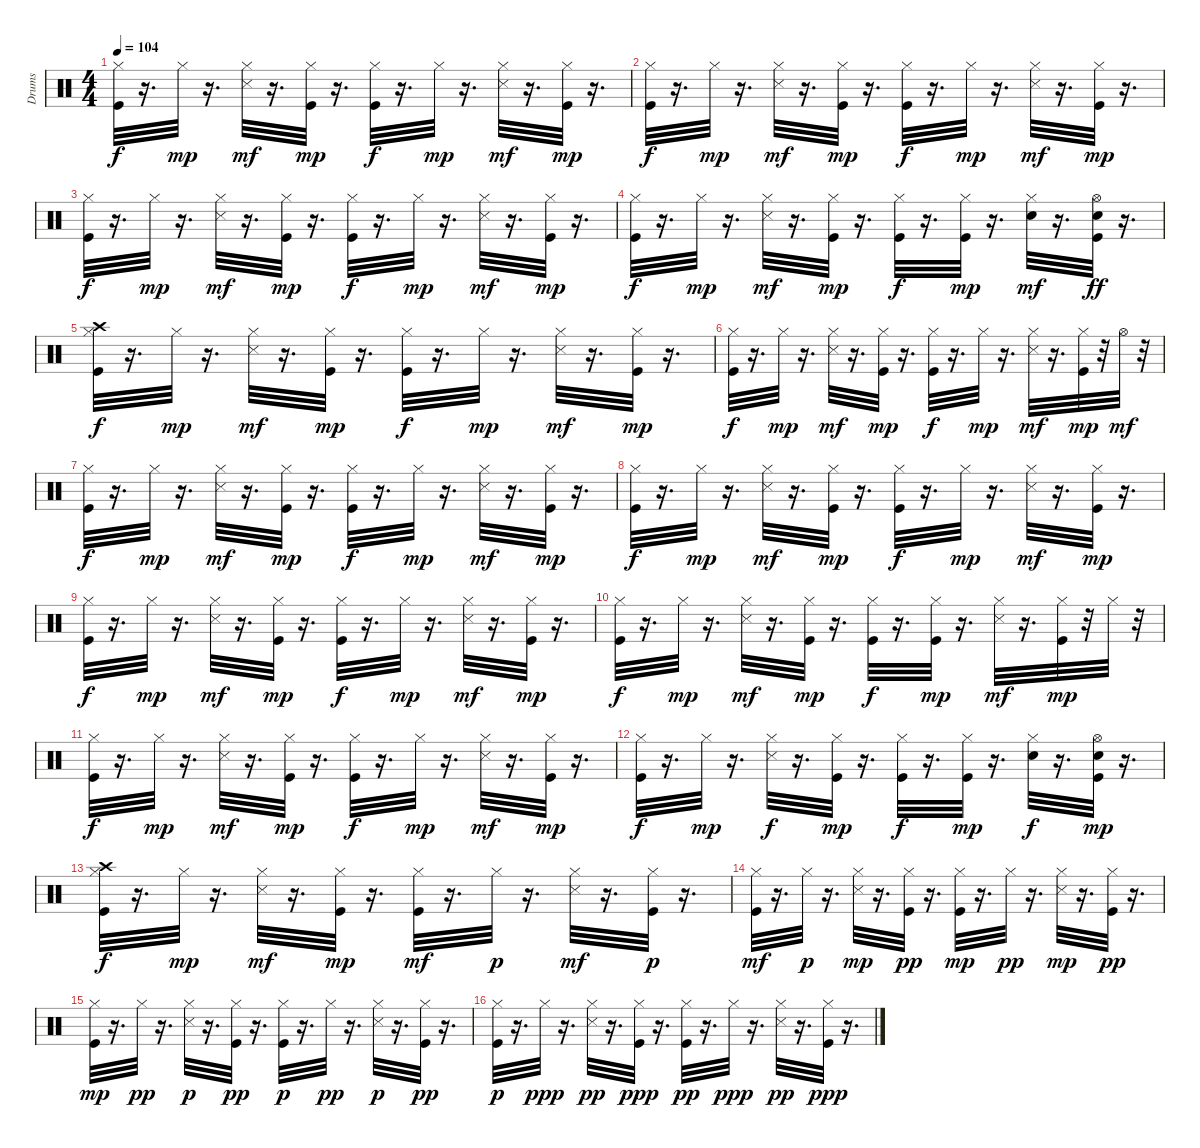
\track ("Drums" "Drums") {instrument percussion}
\staff {score}
\articulation defaults
\ts (4 4)
\tempo 104
\clef neutral
\ks c
("Kick (hit)" "Hi-Hat (closed)").32{dy f} r.16{d} "Hi-Hat (closed)".32{dy mp} r.16{d} ("Hi-Hat (closed)" "Snare (side stick) 3").32{dy mf} r.16{d} ("Kick (hit)" "Hi-Hat (closed)").32{dy mp} r.16{d} ("Kick (hit)" "Hi-Hat (closed)").32{dy f} r.16{d} "Hi-Hat (closed)".32{dy mp} r.16{d} ("Hi-Hat (closed)" "Snare (side stick) 3").32{dy mf} r.16{d} ("Kick (hit)" "Hi-Hat (closed)").32{dy mp} r.16{d} |
("Kick (hit)" "Hi-Hat (closed)").32{dy f} r.16{d} "Hi-Hat (closed)".32{dy mp} r.16{d} ("Hi-Hat (closed)" "Snare (side stick) 3").32{dy mf} r.16{d} ("Kick (hit)" "Hi-Hat (closed)").32{dy mp} r.16{d} ("Kick (hit)" "Hi-Hat (closed)").32{dy f} r.16{d} "Hi-Hat (closed)".32{dy mp} r.16{d} ("Hi-Hat (closed)" "Snare (side stick) 3").32{dy mf} r.16{d} ("Kick (hit)" "Hi-Hat (closed)").32{dy mp} r.16{d} |
("Kick (hit)" "Hi-Hat (closed)").32{dy f} r.16{d} "Hi-Hat (closed)".32{dy mp} r.16{d} ("Hi-Hat (closed)" "Snare (side stick) 3").32{dy mf} r.16{d} ("Kick (hit)" "Hi-Hat (closed)").32{dy mp} r.16{d} ("Kick (hit)" "Hi-Hat (closed)").32{dy f} r.16{d} "Hi-Hat (closed)".32{dy mp} r.16{d} ("Hi-Hat (closed)" "Snare (side stick) 3").32{dy mf} r.16{d} ("Kick (hit)" "Hi-Hat (closed)").32{dy mp} r.16{d} |
("Kick (hit)" "Hi-Hat (closed)").32{dy f} r.16{d} "Hi-Hat (closed)".32{dy mp} r.16{d} ("Hi-Hat (closed)" "Snare (side stick) 3").32{dy mf} r.16{d} ("Kick (hit)" "Hi-Hat (closed)").32{dy mp} r.16{d} ("Kick (hit)" "Hi-Hat (closed)").32{dy f} r.16{d} ("Kick (hit)" "Hi-Hat (closed)").32{dy mp} r.16{d} ("Snare (hit) 2" "Hi-Hat (closed)").32{dy mf} r.16{d} ("Kick (hit)" "Snare (hit) 2" "Hi-Hat (open)").32{dy ff} r.16{d} |
("Kick (hit)" "Hi-Hat (closed)" "Crash high (hit)").32{dy f} r.16{d} "Hi-Hat (closed)".32{dy mp} r.16{d} ("Hi-Hat (closed)" "Snare (side stick) 3").32{dy mf} r.16{d} ("Kick (hit)" "Hi-Hat (closed)").32{dy mp} r.16{d} ("Kick (hit)" "Hi-Hat (closed)").32{dy f} r.16{d} "Hi-Hat (closed)".32{dy mp} r.16{d} ("Hi-Hat (closed)" "Snare (side stick) 3").32{dy mf} r.16{d} ("Kick (hit)" "Hi-Hat (closed)").32{dy mp} r.16{d} |
("Kick (hit)" "Hi-Hat (closed)").32{dy f} r.16{d} "Hi-Hat (closed)".32{dy mp} r.16{d} ("Hi-Hat (closed)" "Snare (side stick) 3").32{dy mf} r.16{d} ("Kick (hit)" "Hi-Hat (closed)").32{dy mp} r.16{d} ("Kick (hit)" "Hi-Hat (closed)").32{dy f} r.16{d} "Hi-Hat (closed)".32{dy mp} r.16{d} ("Hi-Hat (closed)" "Snare (side stick) 3").32{dy mf} r.16{d} ("Kick (hit)" "Hi-Hat (closed)").32{dy mp} r.32 "Hi-Hat (open)".32{dy mf} r.32 |
("Kick (hit)" "Hi-Hat (closed)").32{dy f} r.16{d} "Hi-Hat (closed)".32{dy mp} r.16{d} ("Hi-Hat (closed)" "Snare (side stick) 3").32{dy mf} r.16{d} ("Kick (hit)" "Hi-Hat (closed)").32{dy mp} r.16{d} ("Kick (hit)" "Hi-Hat (closed)").32{dy f} r.16{d} "Hi-Hat (closed)".32{dy mp} r.16{d} ("Hi-Hat (closed)" "Snare (side stick) 3").32{dy mf} r.16{d} ("Kick (hit)" "Hi-Hat (closed)").32{dy mp} r.16{d} |
("Kick (hit)" "Hi-Hat (closed)").32{dy f} r.16{d} "Hi-Hat (closed)".32{dy mp} r.16{d} ("Hi-Hat (closed)" "Snare (side stick) 3").32{dy mf} r.16{d} ("Kick (hit)" "Hi-Hat (closed)").32{dy mp} r.16{d} ("Kick (hit)" "Hi-Hat (closed)").32{dy f} r.16{d} "Hi-Hat (closed)".32{dy mp} r.16{d} ("Hi-Hat (closed)" "Snare (side stick) 3").32{dy mf} r.16{d} ("Kick (hit)" "Hi-Hat (closed)").32{dy mp} r.16{d} |
("Kick (hit)" "Hi-Hat (closed)").32{dy f} r.16{d} "Hi-Hat (closed)".32{dy mp} r.16{d} ("Hi-Hat (closed)" "Snare (side stick) 3").32{dy mf} r.16{d} ("Kick (hit)" "Hi-Hat (closed)").32{dy mp} r.16{d} ("Kick (hit)" "Hi-Hat (closed)").32{dy f} r.16{d} "Hi-Hat (closed)".32{dy mp} r.16{d} ("Hi-Hat (closed)" "Snare (side stick) 3").32{dy mf} r.16{d} ("Kick (hit)" "Hi-Hat (closed)").32{dy mp} r.16{d} |
("Kick (hit)" "Hi-Hat (closed)").32{dy f} r.16{d} "Hi-Hat (closed)".32{dy mp} r.16{d} ("Hi-Hat (closed)" "Snare (side stick) 3").32{dy mf} r.16{d} ("Kick (hit)" "Hi-Hat (closed)").32{dy mp} r.16{d} ("Kick (hit)" "Hi-Hat (closed)").32{dy f} r.16{d} ("Kick (hit)" "Hi-Hat (closed)").32{dy mp} r.16{d} ("Hi-Hat (closed)" "Snare (side stick) 3").32{dy mf} r.16{d} ("Kick (hit)" "Hi-Hat (closed)").32{dy mp} r.32 "Hi-Hat (closed)".32 r.32 |
("Kick (hit)" "Hi-Hat (closed)").32{dy f} r.16{d} "Hi-Hat (closed)".32{dy mp} r.16{d} ("Hi-Hat (closed)" "Snare (side stick) 3").32{dy mf} r.16{d} ("Kick (hit)" "Hi-Hat (closed)").32{dy mp} r.16{d} ("Kick (hit)" "Hi-Hat (closed)").32{dy f} r.16{d} "Hi-Hat (closed)".32{dy mp} r.16{d} ("Hi-Hat (closed)" "Snare (side stick) 3").32{dy mf} r.16{d} ("Kick (hit)" "Hi-Hat (closed)").32{dy mp} r.16{d} |
("Kick (hit)" "Hi-Hat (closed)").32{dy f volume 12} r.16{d} "Hi-Hat (closed)".32{dy mp volume 12} r.16{d} ("Hi-Hat (closed)" "Snare (side stick) 3").32{dy f volume 12} r.16{d} ("Kick (hit)" "Hi-Hat (closed)").32{dy mp volume 11} r.16{d} ("Kick (hit)" "Hi-Hat (closed)").32{dy f volume 11} r.16{d} ("Kick (hit)" "Hi-Hat (closed)").32{dy mp volume 11} r.16{d} ("Snare (hit) 2" "Hi-Hat (closed)").32{dy f volume 11} r.16{d} ("Kick (hit)" "Snare (hit) 2" "Hi-Hat (open)").32{dy mp volume 10} r.16{d} |
("Kick (hit)" "Hi-Hat (closed)" "Crash high (hit)").32{dy f volume 10} r.16{d} "Hi-Hat (closed)".32{dy mp volume 10} r.16{d} ("Hi-Hat (closed)" "Snare (side stick) 3").32{dy mf volume 10} r.16{d} ("Kick (hit)" "Hi-Hat (closed)").32{dy mp volume 10} r.16{d} ("Kick (hit)" "Hi-Hat (closed)").32{dy mf volume 9} r.16{d} "Hi-Hat (closed)".32{dy p volume 9} r.16{d} ("Hi-Hat (closed)" "Snare (side stick) 3").32{dy mf volume 9} r.16{d} ("Kick (hit)" "Hi-Hat (closed)").32{dy p volume 9} r.16{d} |
("Kick (hit)" "Hi-Hat (closed)").32{dy mf volume 9} r.16{d} "Hi-Hat (closed)".32{dy p volume 8} r.16{d} ("Hi-Hat (closed)" "Snare (side stick) 3").32{dy mp volume 8} r.16{d} ("Kick (hit)" "Hi-Hat (closed)").32{dy pp volume 8} r.16{d} ("Kick (hit)" "Hi-Hat (closed)").32{dy mp volume 8} r.16{d} "Hi-Hat (closed)".32{dy pp volume 8} r.16{d} ("Hi-Hat (closed)" "Snare (side stick) 3").32{dy mp volume 7} r.16{d} ("Kick (hit)" "Hi-Hat (closed)").32{dy pp volume 7} r.16{d} |
("Kick (hit)" "Hi-Hat (closed)").32{dy mp volume 7} r.16{d} "Hi-Hat (closed)".32{dy pp volume 7} r.16{d} ("Hi-Hat (closed)" "Snare (side stick) 3").32{dy p volume 6} r.16{d} ("Kick (hit)" "Hi-Hat (closed)").32{dy pp volume 6} r.16{d} ("Kick (hit)" "Hi-Hat (closed)").32{dy p volume 6} r.16{d} "Hi-Hat (closed)".32{dy pp volume 6} r.16{d} ("Hi-Hat (closed)" "Snare (side stick) 3").32{dy p volume 6} r.16{d} ("Kick (hit)" "Hi-Hat (closed)").32{dy pp volume 5} r.16{d} |
("Kick (hit)" "Hi-Hat (closed)").32{dy p volume 5} r.16{d} "Hi-Hat (closed)".32{dy ppp volume 5} r.16{d} ("Hi-Hat (closed)" "Snare (side stick) 3").32{dy pp volume 5} r.16{d} ("Kick (hit)" "Hi-Hat (closed)").32{dy ppp volume 5} r.16{d} ("Kick (hit)" "Hi-Hat (closed)").32{dy pp volume 4} r.16{d} "Hi-Hat (closed)".32{dy ppp volume 4} r.16{d} ("Hi-Hat (closed)" "Snare (side stick) 3").32{dy pp volume 4} r.16{d} ("Kick (hit)" "Hi-Hat (closed)").32{dy ppp volume 4} r.16{d}
